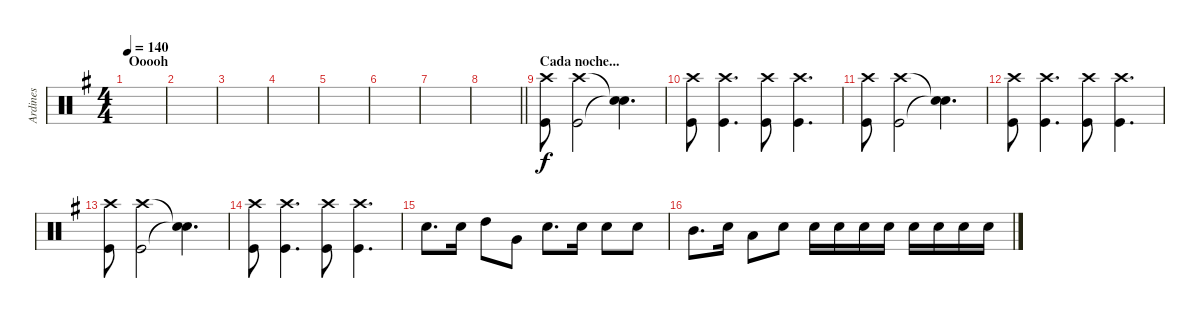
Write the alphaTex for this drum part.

\track ("Ardines" "Ardines") {instrument percussion}
\staff {score}
\articulation defaults
\ts (4 4)
\section ("" "Ooooh")
\tempo 140
\clef neutral
\ks g
|
|
|
|
|
|
|
\barLineRight lightlight
|
\section ("" "Cada noche...")
("Crash high (hit)" "Kick (hit)").8 ("Crash high (hit)" "Kick (hit)").2 ("Snare (hit)"{t} "Snare (hit)"{t}).4{d} |
("Crash high (hit)" "Kick (hit)").8 ("Crash high (hit)" "Kick (hit)").4{d} ("Crash high (hit)" "Kick (hit)").8 ("Crash high (hit)" "Kick (hit)").4{d} |
("Crash high (hit)" "Kick (hit)").8 ("Crash high (hit)" "Kick (hit)").2 ("Snare (hit)"{t} "Snare (hit)"{t}).4{d} |
("Crash high (hit)" "Kick (hit)").8 ("Crash high (hit)" "Kick (hit)").4{d} ("Crash high (hit)" "Kick (hit)").8 ("Crash high (hit)" "Kick (hit)").4{d} |
("Crash high (hit)" "Kick (hit)").8 ("Crash high (hit)" "Kick (hit)").2 ("Snare (hit)"{t} "Snare (hit)"{t}).4{d} |
("Crash high (hit)" "Kick (hit)").8 ("Crash high (hit)" "Kick (hit)").4{d} ("Crash high (hit)" "Kick (hit)").8 ("Crash high (hit)" "Kick (hit)").4{d} |
"Electric Snare (hit)".8{d} "Electric Snare (hit)".16 "High Tom (hit)".8 "Very Low Tom (hit)".8 "Electric Snare (hit)".8{d} "Electric Snare (hit)".16 "Electric Snare (hit)".8 "Electric Snare (hit)".8 |
"Mid Tom (hit)".8{d} "Electric Snare (hit)".16 "Low Tom (hit)".8 "Electric Snare (hit)".8 "Electric Snare (hit)".16 "Electric Snare (hit)".16 "Electric Snare (hit)".16 "Electric Snare (hit)".16 "Electric Snare (hit)".16 "Electric Snare (hit)".16 "Electric Snare (hit)".16 "Electric Snare (hit)".16
